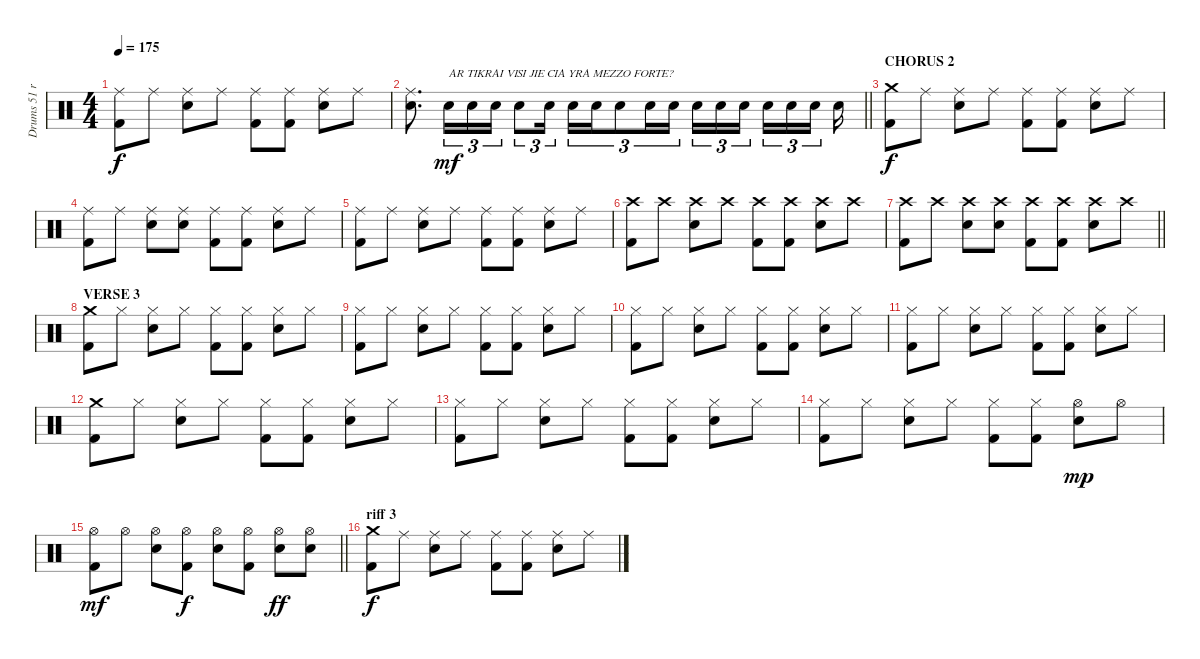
\track ("Drums 51 ride" "Drums 51 r") {instrument percussion}
\staff {score}
\articulation defaults
\ts (4 4)
\tempo 175
\clef neutral
\ks c
("Ride (middle)" "Kick (hit) 2").8{dy f} "Ride (middle)".8 ("Ride (middle)" "Snare (hit) 2").8 "Ride (middle)".8 ("Ride (middle)" "Kick (hit) 2").8 ("Ride (middle)" "Kick (hit) 2").8 ("Ride (middle)" "Snare (hit) 2").8 "Ride (middle)".8 |
\barLineRight lightlight
("Ride (middle)" "Snare (hit) 2").8{d} "Snare (hit) 2".16{tu (3 2) txt "AR TIKRAI VISI JIE CIA YRA MEZZO FORTE?" dy mf} "Snare (hit) 2".16{tu (3 2)} "Snare (hit) 2".16{tu (3 2)} "Snare (hit) 2".8{tu (3 2)} "Snare (hit) 2".16{tu (3 2) beam splitsecondary} "Snare (hit) 2".16{tu (3 2)} "Snare (hit) 2".16{tu (3 2)} "Snare (hit) 2".8{tu (3 2)} "Snare (hit) 2".16{tu (3 2)} "Snare (hit) 2".16{tu (3 2) beam splitsecondary} "Snare (hit) 2".16{tu (3 2)} "Snare (hit) 2".16{tu (3 2)} "Snare (hit) 2".16{tu (3 2) beam splitsecondary} "Snare (hit) 2".16{tu (3 2)} "Snare (hit) 2".16{tu (3 2)} "Snare (hit) 2".16{tu (3 2) beam splitsecondary} "Snare (hit) 2".16 |
\section ("" "CHORUS 2")
("Crash medium (hit)" "Kick (hit) 2").8{dy f} "Ride (middle)".8 ("Ride (middle)" "Snare (hit) 2").8 "Ride (middle)".8 ("Ride (middle)" "Kick (hit) 2").8 ("Ride (middle)" "Kick (hit) 2").8 ("Ride (middle)" "Snare (hit) 2").8 "Ride (middle)".8 |
("Ride (middle)" "Kick (hit) 2").8 "Ride (middle)".8 ("Ride (middle)" "Snare (hit) 2").8 ("Ride (middle)" "Snare (hit) 2").8 ("Ride (middle)" "Kick (hit) 2").8 ("Ride (middle)" "Kick (hit) 2").8 ("Ride (middle)" "Snare (hit) 2").8 "Ride (middle)".8 |
("Ride (middle)" "Kick (hit) 2").8 "Ride (middle)".8 ("Ride (middle)" "Snare (hit) 2").8 "Ride (middle)".8 ("Ride (middle)" "Kick (hit) 2").8 ("Ride (middle)" "Kick (hit) 2").8 ("Ride (middle)" "Snare (hit) 2").8 "Ride (middle)".8 |
("Crash high (hit)" "Kick (hit) 2").8 "Crash high (hit)".8 ("Crash high (hit)" "Snare (hit) 2").8 "Crash high (hit)".8 ("Crash high (hit)" "Kick (hit) 2").8 ("Crash high (hit)" "Kick (hit) 2").8 ("Crash high (hit)" "Snare (hit) 2").8 "Crash high (hit)".8 |
\barLineRight lightlight
("Crash high (hit)" "Kick (hit) 2").8 "Crash high (hit)".8 ("Crash high (hit)" "Snare (hit) 2").8 ("Crash high (hit)" "Snare (hit) 2").8 ("Crash high (hit)" "Kick (hit) 2").8 ("Crash high (hit)" "Kick (hit) 2").8 ("Crash high (hit)" "Snare (hit) 2").8 "Crash high (hit)".8 |
\section ("" "VERSE 3")
("Crash medium (hit)" "Kick (hit) 2").8 "Hi-Hat (closed)".8 ("Hi-Hat (closed)" "Snare (hit) 2").8 "Hi-Hat (closed)".8 ("Hi-Hat (closed)" "Kick (hit) 2").8 ("Hi-Hat (closed)" "Kick (hit) 2").8 ("Hi-Hat (closed)" "Snare (hit) 2").8 "Hi-Hat (closed)".8 |
("Hi-Hat (closed)" "Kick (hit) 2").8 "Hi-Hat (closed)".8 ("Hi-Hat (closed)" "Snare (hit) 2").8 "Hi-Hat (closed)".8 ("Hi-Hat (closed)" "Kick (hit) 2").8 ("Hi-Hat (closed)" "Kick (hit) 2").8 ("Hi-Hat (closed)" "Snare (hit) 2").8 "Hi-Hat (closed)".8 |
("Hi-Hat (closed)" "Kick (hit) 2").8 "Hi-Hat (closed)".8 ("Hi-Hat (closed)" "Snare (hit) 2").8 "Hi-Hat (closed)".8 ("Hi-Hat (closed)" "Kick (hit) 2").8 ("Hi-Hat (closed)" "Kick (hit) 2").8 ("Hi-Hat (closed)" "Snare (hit) 2").8 "Hi-Hat (closed)".8 |
("Hi-Hat (closed)" "Kick (hit) 2").8 "Hi-Hat (closed)".8 ("Hi-Hat (closed)" "Snare (hit) 2").8 "Hi-Hat (closed)".8 ("Hi-Hat (closed)" "Kick (hit) 2").8 ("Hi-Hat (closed)" "Kick (hit) 2").8 ("Hi-Hat (closed)" "Snare (hit) 2").8 "Hi-Hat (closed)".8 |
("Crash medium (hit)" "Kick (hit) 2").8 "Hi-Hat (closed)".8 ("Hi-Hat (closed)" "Snare (hit) 2").8 "Hi-Hat (closed)".8 ("Hi-Hat (closed)" "Kick (hit) 2").8 ("Hi-Hat (closed)" "Kick (hit) 2").8 ("Hi-Hat (closed)" "Snare (hit) 2").8 "Hi-Hat (closed)".8 |
("Hi-Hat (closed)" "Kick (hit) 2").8 "Hi-Hat (closed)".8 ("Hi-Hat (closed)" "Snare (hit) 2").8 "Hi-Hat (closed)".8 ("Hi-Hat (closed)" "Kick (hit) 2").8 ("Hi-Hat (closed)" "Kick (hit) 2").8 ("Hi-Hat (closed)" "Snare (hit) 2").8 "Hi-Hat (closed)".8 |
("Hi-Hat (closed)" "Kick (hit) 2").8 "Hi-Hat (closed)".8 ("Hi-Hat (closed)" "Snare (hit) 2").8 "Hi-Hat (closed)".8 ("Hi-Hat (closed)" "Kick (hit) 2").8 ("Hi-Hat (closed)" "Kick (hit) 2").8 ("Hi-Hat (open)" "Snare (hit) 2").8{dy mp} "Hi-Hat (open)".8 |
\barLineRight lightlight
("Hi-Hat (open)" "Kick (hit) 2").8{dy mf} "Hi-Hat (open)".8 ("Hi-Hat (open)" "Snare (hit) 2").8 ("Hi-Hat (open)" "Kick (hit) 2").8{dy f} ("Hi-Hat (open)" "Snare (hit) 2").8 ("Hi-Hat (open)" "Kick (hit) 2").8 ("Hi-Hat (open)" "Snare (hit) 2").8{dy ff} ("Hi-Hat (open)" "Snare (hit) 2").8 |
\section ("" "riff 3")
("Crash medium (hit)" "Kick (hit) 2").8{dy f} "Ride (middle)".8 ("Ride (middle)" "Snare (hit) 2").8 "Ride (middle)".8 ("Ride (middle)" "Kick (hit) 2").8 ("Ride (middle)" "Kick (hit) 2").8 ("Ride (middle)" "Snare (hit) 2").8 "Ride (middle)".8
